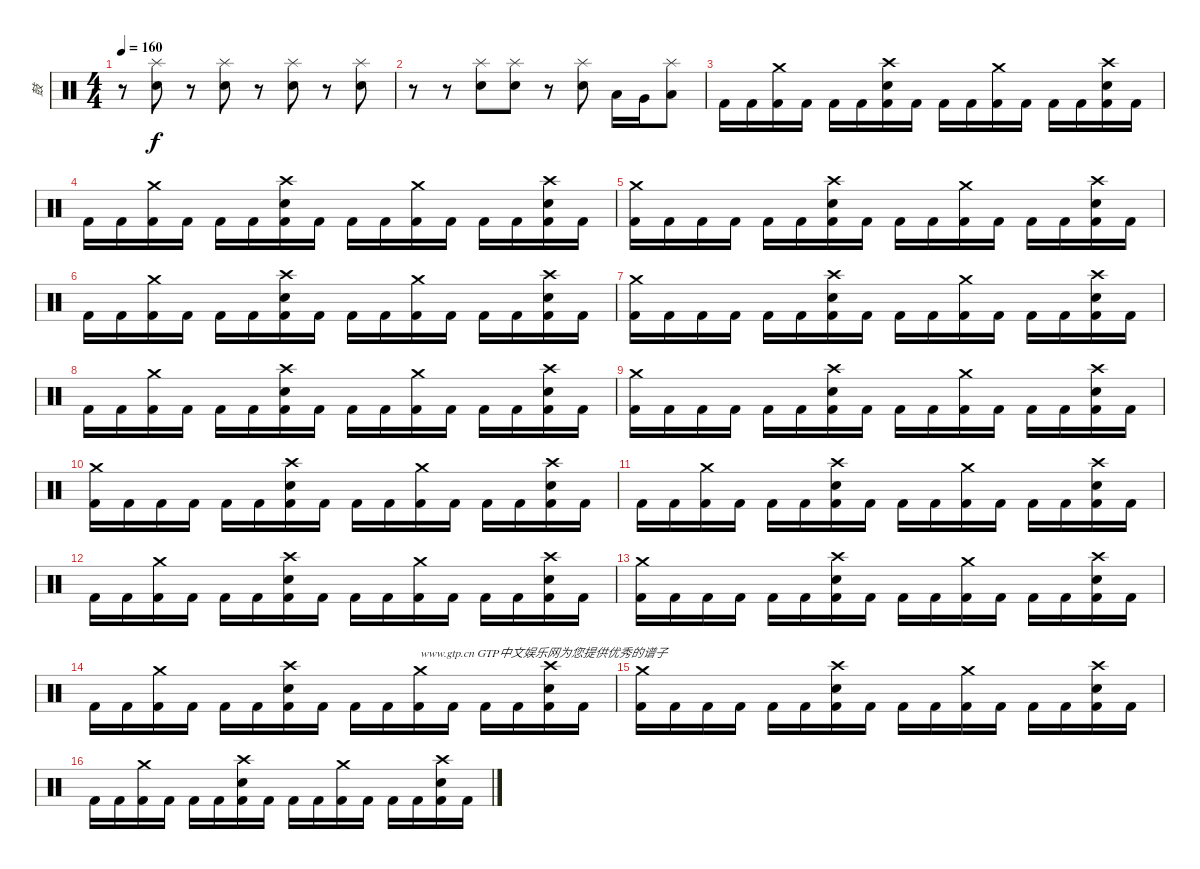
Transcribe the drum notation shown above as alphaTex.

\track ("鼓" "鼓") {instrument percussion}
\staff {score}
\articulation defaults
\ts (4 4)
\tempo 160
\clef neutral
\ks c
r.8{dy f} ("Splash (hit)" "Snare (hit) 2").8 r.8 ("Splash (hit)" "Snare (hit) 2").8 r.8 ("Splash (hit)" "Snare (hit) 2").8 r.8 ("Splash (hit)" "Snare (hit) 2").8 |
r.8 r.8 ("Splash (hit)" "Snare (hit) 2").8 ("Splash (hit)" "Snare (hit) 2").8 r.8 ("Splash (hit)" "Snare (hit) 2").8 "Low Tom (hit)".16 "Very Low Tom (hit)".16 ("Splash (hit)" "Low Floor Tom (hit)").8 |
"Kick (hit) 2".16 "Kick (hit) 2".16 ("Crash medium (hit)" "Kick (hit) 2").16 "Kick (hit) 2".16 "Kick (hit) 2".16 "Kick (hit) 2".16 ("Crash high (hit)" "Snare (hit) 2" "Kick (hit) 2").16 "Kick (hit) 2".16 "Kick (hit) 2".16 "Kick (hit) 2".16 ("Crash medium (hit)" "Kick (hit) 2").16 "Kick (hit) 2".16 "Kick (hit) 2".16 "Kick (hit) 2".16 ("Crash high (hit)" "Snare (hit) 2" "Kick (hit) 2").16 "Kick (hit) 2".16 |
"Kick (hit) 2".16 "Kick (hit) 2".16 ("Crash medium (hit)" "Kick (hit) 2").16 "Kick (hit) 2".16 "Kick (hit) 2".16 "Kick (hit) 2".16 ("Crash high (hit)" "Snare (hit) 2" "Kick (hit) 2").16 "Kick (hit) 2".16 "Kick (hit) 2".16 "Kick (hit) 2".16 ("Crash medium (hit)" "Kick (hit) 2").16 "Kick (hit) 2".16 "Kick (hit) 2".16 "Kick (hit) 2".16 ("Crash high (hit)" "Snare (hit) 2" "Kick (hit) 2").16 "Kick (hit) 2".16 |
("Crash medium (hit)" "Kick (hit) 2").16 "Kick (hit) 2".16 "Kick (hit) 2".16 "Kick (hit) 2".16 "Kick (hit) 2".16 "Kick (hit) 2".16 ("Crash high (hit)" "Snare (hit) 2" "Kick (hit) 2").16 "Kick (hit) 2".16 "Kick (hit) 2".16 "Kick (hit) 2".16 ("Crash medium (hit)" "Kick (hit) 2").16 "Kick (hit) 2".16 "Kick (hit) 2".16 "Kick (hit) 2".16 ("Crash high (hit)" "Snare (hit) 2" "Kick (hit) 2").16 "Kick (hit) 2".16 |
"Kick (hit) 2".16 "Kick (hit) 2".16 ("Crash medium (hit)" "Kick (hit) 2").16 "Kick (hit) 2".16 "Kick (hit) 2".16 "Kick (hit) 2".16 ("Crash high (hit)" "Snare (hit) 2" "Kick (hit) 2").16 "Kick (hit) 2".16 "Kick (hit) 2".16 "Kick (hit) 2".16 ("Crash medium (hit)" "Kick (hit) 2").16 "Kick (hit) 2".16 "Kick (hit) 2".16 "Kick (hit) 2".16 ("Crash high (hit)" "Snare (hit) 2" "Kick (hit) 2").16 "Kick (hit) 2".16 |
("Crash medium (hit)" "Kick (hit) 2").16 "Kick (hit) 2".16 "Kick (hit) 2".16 "Kick (hit) 2".16 "Kick (hit) 2".16 "Kick (hit) 2".16 ("Crash high (hit)" "Snare (hit) 2" "Kick (hit) 2").16 "Kick (hit) 2".16 "Kick (hit) 2".16 "Kick (hit) 2".16 ("Crash medium (hit)" "Kick (hit) 2").16 "Kick (hit) 2".16 "Kick (hit) 2".16 "Kick (hit) 2".16 ("Crash high (hit)" "Snare (hit) 2" "Kick (hit) 2").16 "Kick (hit) 2".16 |
"Kick (hit) 2".16 "Kick (hit) 2".16 ("Crash medium (hit)" "Kick (hit) 2").16 "Kick (hit) 2".16 "Kick (hit) 2".16 "Kick (hit) 2".16 ("Crash high (hit)" "Snare (hit) 2" "Kick (hit) 2").16 "Kick (hit) 2".16 "Kick (hit) 2".16 "Kick (hit) 2".16 ("Crash medium (hit)" "Kick (hit) 2").16 "Kick (hit) 2".16 "Kick (hit) 2".16 "Kick (hit) 2".16 ("Crash high (hit)" "Snare (hit) 2" "Kick (hit) 2").16 "Kick (hit) 2".16 |
("Crash medium (hit)" "Kick (hit) 2").16 "Kick (hit) 2".16 "Kick (hit) 2".16 "Kick (hit) 2".16 "Kick (hit) 2".16 "Kick (hit) 2".16 ("Crash high (hit)" "Snare (hit) 2" "Kick (hit) 2").16 "Kick (hit) 2".16 "Kick (hit) 2".16 "Kick (hit) 2".16 ("Crash medium (hit)" "Kick (hit) 2").16 "Kick (hit) 2".16 "Kick (hit) 2".16 "Kick (hit) 2".16 ("Crash high (hit)" "Snare (hit) 2" "Kick (hit) 2").16 "Kick (hit) 2".16 |
("Crash medium (hit)" "Kick (hit) 2").16 "Kick (hit) 2".16 "Kick (hit) 2".16 "Kick (hit) 2".16 "Kick (hit) 2".16 "Kick (hit) 2".16 ("Crash high (hit)" "Snare (hit) 2" "Kick (hit) 2").16 "Kick (hit) 2".16 "Kick (hit) 2".16 "Kick (hit) 2".16 ("Crash medium (hit)" "Kick (hit) 2").16 "Kick (hit) 2".16 "Kick (hit) 2".16 "Kick (hit) 2".16 ("Crash high (hit)" "Snare (hit) 2" "Kick (hit) 2").16 "Kick (hit) 2".16 |
"Kick (hit) 2".16 "Kick (hit) 2".16 ("Crash medium (hit)" "Kick (hit) 2").16 "Kick (hit) 2".16 "Kick (hit) 2".16 "Kick (hit) 2".16 ("Crash high (hit)" "Snare (hit) 2" "Kick (hit) 2").16 "Kick (hit) 2".16 "Kick (hit) 2".16 "Kick (hit) 2".16 ("Crash medium (hit)" "Kick (hit) 2").16 "Kick (hit) 2".16 "Kick (hit) 2".16 "Kick (hit) 2".16 ("Crash high (hit)" "Snare (hit) 2" "Kick (hit) 2").16 "Kick (hit) 2".16 |
"Kick (hit) 2".16 "Kick (hit) 2".16 ("Crash medium (hit)" "Kick (hit) 2").16 "Kick (hit) 2".16 "Kick (hit) 2".16 "Kick (hit) 2".16 ("Crash high (hit)" "Snare (hit) 2" "Kick (hit) 2").16 "Kick (hit) 2".16 "Kick (hit) 2".16 "Kick (hit) 2".16 ("Crash medium (hit)" "Kick (hit) 2").16 "Kick (hit) 2".16 "Kick (hit) 2".16 "Kick (hit) 2".16 ("Crash high (hit)" "Snare (hit) 2" "Kick (hit) 2").16 "Kick (hit) 2".16 |
("Crash medium (hit)" "Kick (hit) 2").16 "Kick (hit) 2".16 "Kick (hit) 2".16 "Kick (hit) 2".16 "Kick (hit) 2".16 "Kick (hit) 2".16 ("Crash high (hit)" "Snare (hit) 2" "Kick (hit) 2").16 "Kick (hit) 2".16 "Kick (hit) 2".16 "Kick (hit) 2".16 ("Crash medium (hit)" "Kick (hit) 2").16 "Kick (hit) 2".16 "Kick (hit) 2".16 "Kick (hit) 2".16 ("Crash high (hit)" "Snare (hit) 2" "Kick (hit) 2").16 "Kick (hit) 2".16 |
"Kick (hit) 2".16 "Kick (hit) 2".16 ("Crash medium (hit)" "Kick (hit) 2").16 "Kick (hit) 2".16 "Kick (hit) 2".16 "Kick (hit) 2".16 ("Crash high (hit)" "Snare (hit) 2" "Kick (hit) 2").16 "Kick (hit) 2".16 "Kick (hit) 2".16 "Kick (hit) 2".16 ("Crash medium (hit)" "Kick (hit) 2").16{txt "www.gtp.cn GTP中文娱乐网为您提供优秀的谱子"} "Kick (hit) 2".16 "Kick (hit) 2".16 "Kick (hit) 2".16 ("Crash high (hit)" "Snare (hit) 2" "Kick (hit) 2").16 "Kick (hit) 2".16 |
("Crash medium (hit)" "Kick (hit) 2").16 "Kick (hit) 2".16 "Kick (hit) 2".16 "Kick (hit) 2".16 "Kick (hit) 2".16 "Kick (hit) 2".16 ("Crash high (hit)" "Snare (hit) 2" "Kick (hit) 2").16 "Kick (hit) 2".16 "Kick (hit) 2".16 "Kick (hit) 2".16 ("Crash medium (hit)" "Kick (hit) 2").16 "Kick (hit) 2".16 "Kick (hit) 2".16 "Kick (hit) 2".16 ("Crash high (hit)" "Snare (hit) 2" "Kick (hit) 2").16 "Kick (hit) 2".16 |
"Kick (hit) 2".16 "Kick (hit) 2".16 ("Crash medium (hit)" "Kick (hit) 2").16 "Kick (hit) 2".16 "Kick (hit) 2".16 "Kick (hit) 2".16 ("Crash high (hit)" "Snare (hit) 2" "Kick (hit) 2").16 "Kick (hit) 2".16 "Kick (hit) 2".16 "Kick (hit) 2".16 ("Crash medium (hit)" "Kick (hit) 2").16 "Kick (hit) 2".16 "Kick (hit) 2".16 "Kick (hit) 2".16 ("Crash high (hit)" "Snare (hit) 2" "Kick (hit) 2").16 "Kick (hit) 2".16
